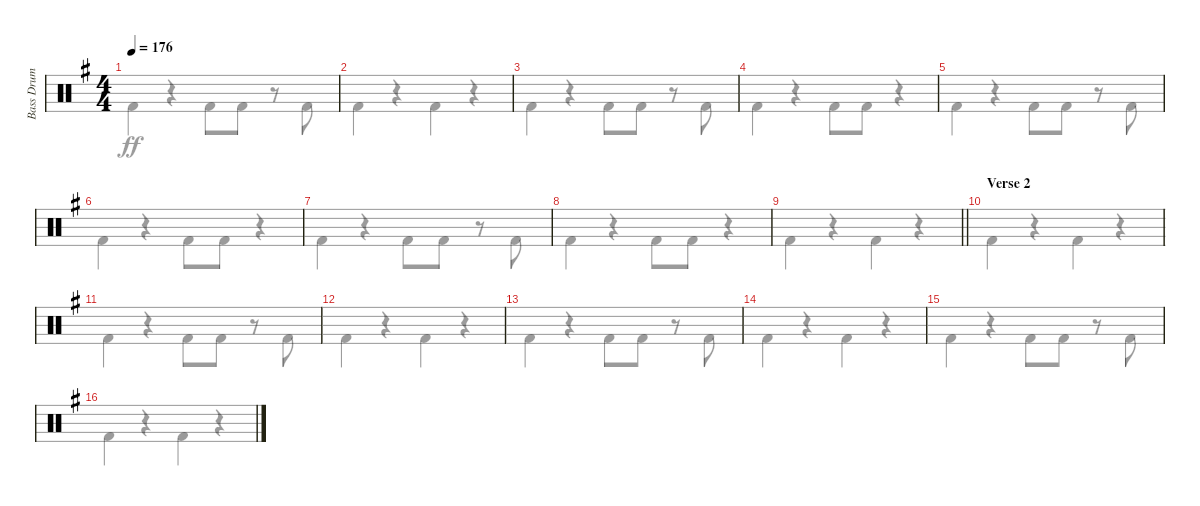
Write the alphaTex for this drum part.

\track ("Bass Drum" "Bass Drum") {instrument percussion}
\staff {score}
\articulation defaults
\voice
\ts (4 4)
\tempo 176
\clef neutral
\ks eminor
|
|
|
|
|
|
|
|
\barLineRight lightlight
|
\section ("" "Verse 2")
|
|
|
|
|
|
\voice
\clef neutral
\ks eminor "Kick (hit) 2".4{dy ff}
r.4 "Kick (hit) 2".8 "Kick (hit) 2".8 r.8 "Kick (hit) 2".8 |
"Kick (hit) 2".4 r.4 "Kick (hit) 2".4 r.4 |
"Kick (hit) 2".4 r.4 "Kick (hit) 2".8 "Kick (hit) 2".8 r.8 "Kick (hit) 2".8 |
"Kick (hit) 2".4 r.4 "Kick (hit) 2".8 "Kick (hit) 2".8 r.4 |
"Kick (hit) 2".4 r.4 "Kick (hit) 2".8 "Kick (hit) 2".8 r.8 "Kick (hit) 2".8 |
"Kick (hit) 2".4 r.4 "Kick (hit) 2".8 "Kick (hit) 2".8 r.4 |
"Kick (hit) 2".4 r.4 "Kick (hit) 2".8 "Kick (hit) 2".8 r.8 "Kick (hit) 2".8 |
"Kick (hit) 2".4 r.4 "Kick (hit) 2".8 "Kick (hit) 2".8 r.4 |
\barLineRight lightlight "Kick (hit) 2".4
r.4 "Kick (hit) 2".4 r.4 |
"Kick (hit) 2".4 r.4 "Kick (hit) 2".4 r.4 |
"Kick (hit) 2".4 r.4 "Kick (hit) 2".8 "Kick (hit) 2".8 r.8 "Kick (hit) 2".8 |
"Kick (hit) 2".4 r.4 "Kick (hit) 2".4 r.4 |
"Kick (hit) 2".4 r.4 "Kick (hit) 2".8 "Kick (hit) 2".8 r.8 "Kick (hit) 2".8 |
"Kick (hit) 2".4 r.4 "Kick (hit) 2".4 r.4 |
"Kick (hit) 2".4 r.4 "Kick (hit) 2".8 "Kick (hit) 2".8 r.8 "Kick (hit) 2".8 |
"Kick (hit) 2".4 r.4 "Kick (hit) 2".4 r.4
